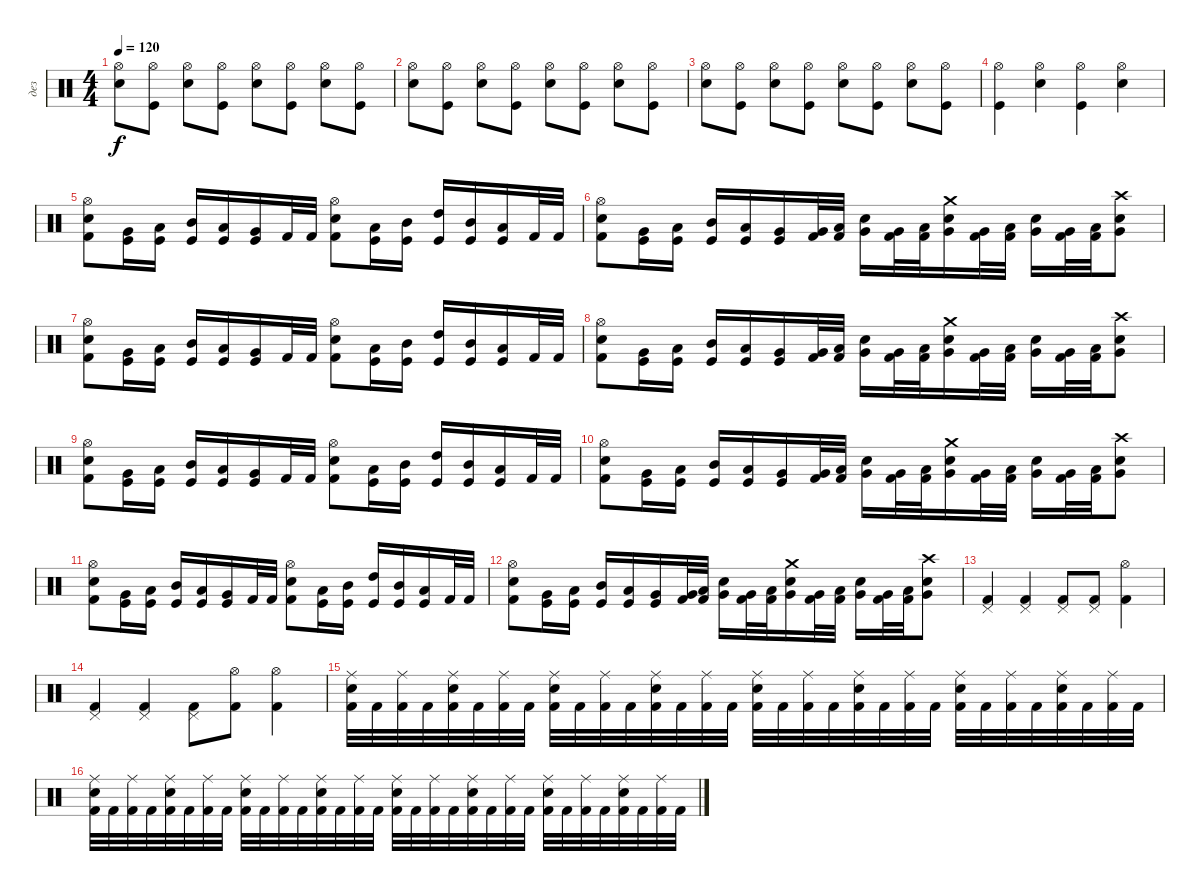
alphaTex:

\track ("дез" "дез") {instrument percussion}
\staff {score}
\articulation defaults
\ts (4 4)
\tempo 120
\clef neutral
\ks c
("Hi-Hat (open)" "Snare (hit) 2").8{dy f} ("Hi-Hat (open)" "Kick (hit)").8 ("Hi-Hat (open)" "Snare (hit) 2").8 ("Hi-Hat (open)" "Kick (hit)").8 ("Hi-Hat (open)" "Snare (hit) 2").8 ("Hi-Hat (open)" "Kick (hit)").8 ("Hi-Hat (open)" "Snare (hit) 2").8 ("Hi-Hat (open)" "Kick (hit)").8 |
("Hi-Hat (open)" "Snare (hit) 2").8 ("Hi-Hat (open)" "Kick (hit)").8 ("Hi-Hat (open)" "Snare (hit) 2").8 ("Hi-Hat (open)" "Kick (hit)").8 ("Hi-Hat (open)" "Snare (hit) 2").8 ("Hi-Hat (open)" "Kick (hit)").8 ("Hi-Hat (open)" "Snare (hit) 2").8 ("Hi-Hat (open)" "Kick (hit)").8 |
("Hi-Hat (open)" "Snare (hit) 2").8 ("Hi-Hat (open)" "Kick (hit)").8 ("Hi-Hat (open)" "Snare (hit) 2").8 ("Hi-Hat (open)" "Kick (hit)").8 ("Hi-Hat (open)" "Snare (hit) 2").8 ("Hi-Hat (open)" "Kick (hit)").8 ("Hi-Hat (open)" "Snare (hit) 2").8 ("Hi-Hat (open)" "Kick (hit)").8 |
("Hi-Hat (open)" "Kick (hit)").4 ("Hi-Hat (open)" "Snare (hit) 2").4 ("Hi-Hat (open)" "Kick (hit)").4 ("Hi-Hat (open)" "Snare (hit) 2").4 |
("Hi-Hat (open)" "Snare (hit) 2" "Kick (hit) 2").8 ("Very Low Tom (hit)" "Kick (hit)").16 ("Low Tom (hit)" "Kick (hit)").16 ("Mid Tom (hit)" "Kick (hit)").16 ("Low Tom (hit)" "Kick (hit)").16 ("Very Low Tom (hit)" "Kick (hit)").16 "Kick (hit) 2".32 "Kick (hit) 2".32 ("Hi-Hat (open)" "Snare (hit) 2" "Kick (hit) 2").8 ("Low Tom (hit)" "Kick (hit)").16 ("Mid Tom (hit)" "Kick (hit)").16 ("High Tom (hit)" "Kick (hit)").16 ("Mid Tom (hit)" "Kick (hit)").16 ("Low Tom (hit)" "Kick (hit)").16 "Kick (hit) 2".32 "Kick (hit) 2".32 |
("Hi-Hat (open)" "Snare (hit) 2" "Kick (hit) 2").8 ("Very Low Tom (hit)" "Kick (hit)").16 ("Low Tom (hit)" "Kick (hit)").16 ("Mid Tom (hit)" "Kick (hit)").16 ("Low Tom (hit)" "Kick (hit)").16 ("Very Low Tom (hit)" "Kick (hit)").16 ("Very Low Tom (hit)" "Kick (hit) 2").32 ("Low Tom (hit)" "Kick (hit) 2").32 ("Snare (hit) 2" "Very Low Tom (hit)").16 ("Very Low Tom (hit)" "Kick (hit) 2").32 ("Low Tom (hit)" "Kick (hit) 2").32 ("Crash medium (hit)" "Snare (hit) 2" "Very Low Tom (hit)").16 ("Very Low Tom (hit)" "Kick (hit) 2").32 ("Low Tom (hit)" "Kick (hit) 2").32 ("Snare (hit) 2" "Very Low Tom (hit)").16 ("Very Low Tom (hit)" "Kick (hit) 2").32 ("Low Tom (hit)" "Kick (hit) 2").32 ("Crash high (hit)" "Snare (hit) 2" "Very Low Tom (hit)").8 |
("Hi-Hat (open)" "Snare (hit) 2" "Kick (hit) 2").8 ("Very Low Tom (hit)" "Kick (hit)").16 ("Low Tom (hit)" "Kick (hit)").16 ("Mid Tom (hit)" "Kick (hit)").16 ("Low Tom (hit)" "Kick (hit)").16 ("Very Low Tom (hit)" "Kick (hit)").16 "Kick (hit) 2".32 "Kick (hit) 2".32 ("Hi-Hat (open)" "Snare (hit) 2" "Kick (hit) 2").8 ("Low Tom (hit)" "Kick (hit)").16 ("Mid Tom (hit)" "Kick (hit)").16 ("High Tom (hit)" "Kick (hit)").16 ("Mid Tom (hit)" "Kick (hit)").16 ("Low Tom (hit)" "Kick (hit)").16 "Kick (hit) 2".32 "Kick (hit) 2".32 |
("Hi-Hat (open)" "Snare (hit) 2" "Kick (hit) 2").8 ("Very Low Tom (hit)" "Kick (hit)").16 ("Low Tom (hit)" "Kick (hit)").16 ("Mid Tom (hit)" "Kick (hit)").16 ("Low Tom (hit)" "Kick (hit)").16 ("Very Low Tom (hit)" "Kick (hit)").16 ("Very Low Tom (hit)" "Kick (hit) 2").32 ("Low Tom (hit)" "Kick (hit) 2").32 ("Snare (hit) 2" "Very Low Tom (hit)").16 ("Very Low Tom (hit)" "Kick (hit) 2").32 ("Low Tom (hit)" "Kick (hit) 2").32 ("Crash medium (hit)" "Snare (hit) 2" "Very Low Tom (hit)").16 ("Very Low Tom (hit)" "Kick (hit) 2").32 ("Low Tom (hit)" "Kick (hit) 2").32 ("Snare (hit) 2" "Very Low Tom (hit)").16 ("Very Low Tom (hit)" "Kick (hit) 2").32 ("Low Tom (hit)" "Kick (hit) 2").32 ("Crash high (hit)" "Snare (hit) 2" "Very Low Tom (hit)").8 |
("Hi-Hat (open)" "Snare (hit) 2" "Kick (hit) 2").8 ("Very Low Tom (hit)" "Kick (hit)").16 ("Low Tom (hit)" "Kick (hit)").16 ("Mid Tom (hit)" "Kick (hit)").16 ("Low Tom (hit)" "Kick (hit)").16 ("Very Low Tom (hit)" "Kick (hit)").16 "Kick (hit) 2".32 "Kick (hit) 2".32 ("Hi-Hat (open)" "Snare (hit) 2" "Kick (hit) 2").8 ("Low Tom (hit)" "Kick (hit)").16 ("Mid Tom (hit)" "Kick (hit)").16 ("High Tom (hit)" "Kick (hit)").16 ("Mid Tom (hit)" "Kick (hit)").16 ("Low Tom (hit)" "Kick (hit)").16 "Kick (hit) 2".32 "Kick (hit) 2".32 |
("Hi-Hat (open)" "Snare (hit) 2" "Kick (hit) 2").8 ("Very Low Tom (hit)" "Kick (hit)").16 ("Low Tom (hit)" "Kick (hit)").16 ("Mid Tom (hit)" "Kick (hit)").16 ("Low Tom (hit)" "Kick (hit)").16 ("Very Low Tom (hit)" "Kick (hit)").16 ("Very Low Tom (hit)" "Kick (hit) 2").32 ("Low Tom (hit)" "Kick (hit) 2").32 ("Snare (hit) 2" "Very Low Tom (hit)").16 ("Very Low Tom (hit)" "Kick (hit) 2").32 ("Low Tom (hit)" "Kick (hit) 2").32 ("Crash medium (hit)" "Snare (hit) 2" "Very Low Tom (hit)").16 ("Very Low Tom (hit)" "Kick (hit) 2").32 ("Low Tom (hit)" "Kick (hit) 2").32 ("Snare (hit) 2" "Very Low Tom (hit)").16 ("Very Low Tom (hit)" "Kick (hit) 2").32 ("Low Tom (hit)" "Kick (hit) 2").32 ("Crash high (hit)" "Snare (hit) 2" "Very Low Tom (hit)").8 |
("Hi-Hat (open)" "Snare (hit) 2" "Kick (hit) 2").8 ("Very Low Tom (hit)" "Kick (hit)").16 ("Low Tom (hit)" "Kick (hit)").16 ("Mid Tom (hit)" "Kick (hit)").16 ("Low Tom (hit)" "Kick (hit)").16 ("Very Low Tom (hit)" "Kick (hit)").16 "Kick (hit) 2".32 "Kick (hit) 2".32 ("Hi-Hat (open)" "Snare (hit) 2" "Kick (hit) 2").8 ("Low Tom (hit)" "Kick (hit)").16 ("Mid Tom (hit)" "Kick (hit)").16 ("High Tom (hit)" "Kick (hit)").16 ("Mid Tom (hit)" "Kick (hit)").16 ("Low Tom (hit)" "Kick (hit)").16 "Kick (hit) 2".32 "Kick (hit) 2".32 |
("Hi-Hat (open)" "Snare (hit) 2" "Kick (hit) 2").8 ("Very Low Tom (hit)" "Kick (hit)").16 ("Low Tom (hit)" "Kick (hit)").16 ("Mid Tom (hit)" "Kick (hit)").16 ("Low Tom (hit)" "Kick (hit)").16 ("Very Low Tom (hit)" "Kick (hit)").16 ("Very Low Tom (hit)" "Kick (hit) 2").32 ("Low Tom (hit)" "Kick (hit) 2").32 ("Snare (hit) 2" "Very Low Tom (hit)").16 ("Very Low Tom (hit)" "Kick (hit) 2").32 ("Low Tom (hit)" "Kick (hit) 2").32 ("Crash medium (hit)" "Snare (hit) 2" "Very Low Tom (hit)").16 ("Very Low Tom (hit)" "Kick (hit) 2").32 ("Low Tom (hit)" "Kick (hit) 2").32 ("Snare (hit) 2" "Very Low Tom (hit)").16 ("Very Low Tom (hit)" "Kick (hit) 2").32 ("Low Tom (hit)" "Kick (hit) 2").32 ("Crash high (hit)" "Snare (hit) 2" "Very Low Tom (hit)").8 |
("Pedal Hi-Hat (hit)" "Kick (hit) 2").4 ("Pedal Hi-Hat (hit)" "Kick (hit) 2").4 ("Pedal Hi-Hat (hit)" "Kick (hit) 2").8 ("Pedal Hi-Hat (hit)" "Kick (hit) 2").8 ("Hi-Hat (open)" "Kick (hit) 2").4 |
("Pedal Hi-Hat (hit)" "Kick (hit) 2").4 ("Pedal Hi-Hat (hit)" "Kick (hit) 2").4 ("Pedal Hi-Hat (hit)" "Kick (hit) 2").8 ("Hi-Hat (open)" "Kick (hit) 2").8 ("Hi-Hat (open)" "Kick (hit) 2").4 |
("Ride (middle)" "Snare (hit) 2" "Kick (hit) 2").32 "Kick (hit) 2".32 ("Ride (middle)" "Kick (hit) 2").32 "Kick (hit) 2".32 ("Ride (middle)" "Snare (hit) 2" "Kick (hit) 2").32 "Kick (hit) 2".32 ("Ride (middle)" "Kick (hit) 2").32 "Kick (hit) 2".32 ("Ride (middle)" "Snare (hit) 2" "Kick (hit) 2").32 "Kick (hit) 2".32 ("Ride (middle)" "Kick (hit) 2").32 "Kick (hit) 2".32 ("Ride (middle)" "Snare (hit) 2" "Kick (hit) 2").32 "Kick (hit) 2".32 ("Ride (middle)" "Kick (hit) 2").32 "Kick (hit) 2".32 ("Ride (middle)" "Snare (hit) 2" "Kick (hit) 2").32 "Kick (hit) 2".32 ("Ride (middle)" "Kick (hit) 2").32 "Kick (hit) 2".32 ("Ride (middle)" "Snare (hit) 2" "Kick (hit) 2").32 "Kick (hit) 2".32 ("Ride (middle)" "Kick (hit) 2").32 "Kick (hit) 2".32 ("Ride (middle)" "Snare (hit) 2" "Kick (hit) 2").32 "Kick (hit) 2".32 ("Ride (middle)" "Kick (hit) 2").32 "Kick (hit) 2".32 ("Ride (middle)" "Snare (hit) 2" "Kick (hit) 2").32 "Kick (hit) 2".32 ("Ride (middle)" "Kick (hit) 2").32 "Kick (hit) 2".32 |
("Ride (middle)" "Snare (hit) 2" "Kick (hit) 2").32 "Kick (hit) 2".32 ("Ride (middle)" "Kick (hit) 2").32 "Kick (hit) 2".32 ("Ride (middle)" "Snare (hit) 2" "Kick (hit) 2").32 "Kick (hit) 2".32 ("Ride (middle)" "Kick (hit) 2").32 "Kick (hit) 2".32 ("Ride (middle)" "Snare (hit) 2" "Kick (hit) 2").32 "Kick (hit) 2".32 ("Ride (middle)" "Kick (hit) 2").32 "Kick (hit) 2".32 ("Ride (middle)" "Snare (hit) 2" "Kick (hit) 2").32 "Kick (hit) 2".32 ("Ride (middle)" "Kick (hit) 2").32 "Kick (hit) 2".32 ("Ride (middle)" "Snare (hit) 2" "Kick (hit) 2").32 "Kick (hit) 2".32 ("Ride (middle)" "Kick (hit) 2").32 "Kick (hit) 2".32 ("Ride (middle)" "Snare (hit) 2" "Kick (hit) 2").32 "Kick (hit) 2".32 ("Ride (middle)" "Kick (hit) 2").32 "Kick (hit) 2".32 ("Ride (middle)" "Snare (hit) 2" "Kick (hit) 2").32 "Kick (hit) 2".32 ("Ride (middle)" "Kick (hit) 2").32 "Kick (hit) 2".32 ("Ride (middle)" "Snare (hit) 2" "Kick (hit) 2").32 "Kick (hit) 2".32 ("Ride (middle)" "Kick (hit) 2").32 "Kick (hit) 2".32
